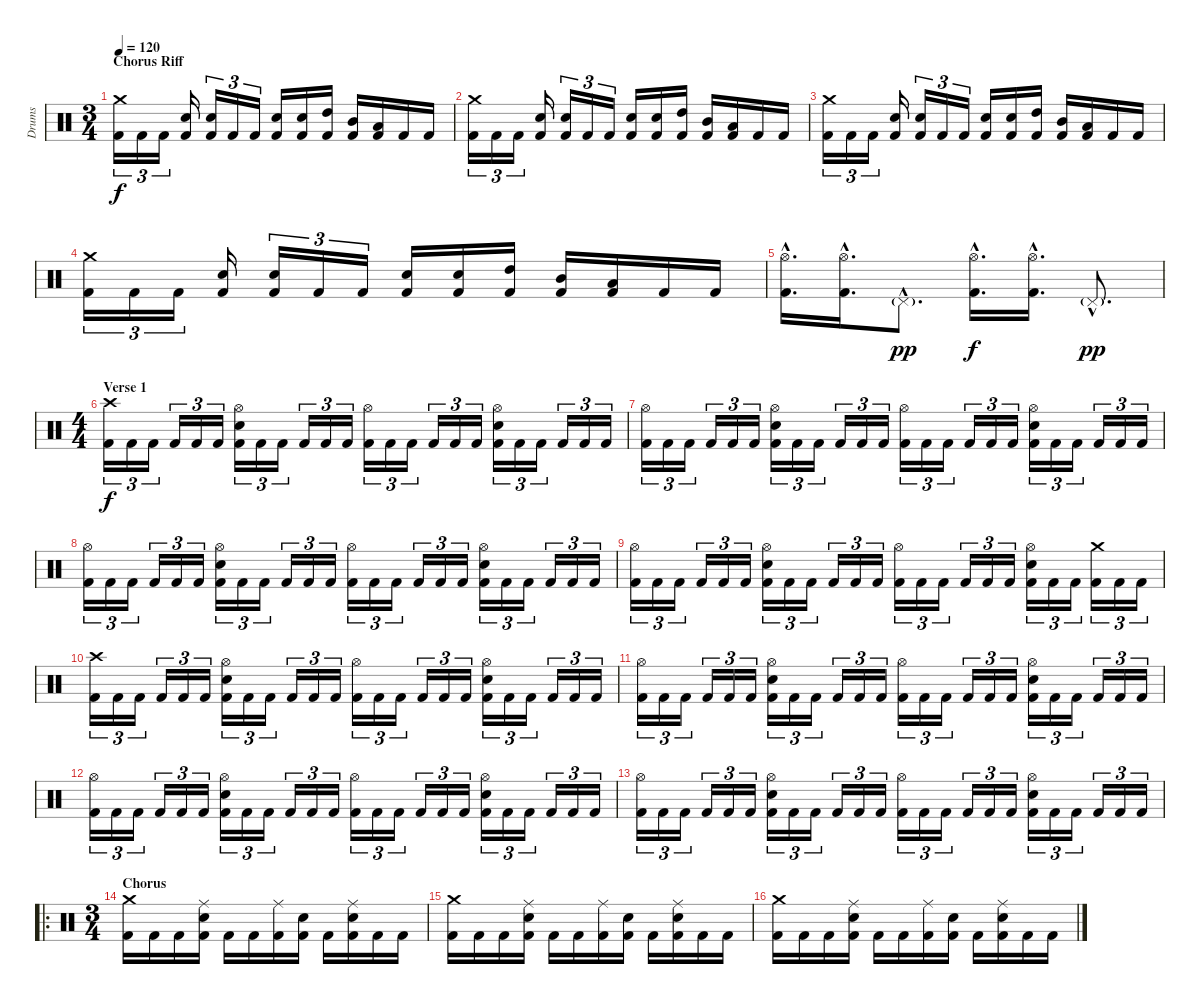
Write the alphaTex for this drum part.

\track ("Drums" "Drums") {instrument percussion}
\staff {score}
\articulation defaults
\ts (3 4)
\section ("" "Chorus Riff")
\tempo 120
\clef neutral
\ks c
("Crash medium (hit)" "Kick (hit) 2").16{tu (3 2) dy f} "Kick (hit) 2".16{tu (3 2)} "Kick (hit) 2".16{tu (3 2)} ("Electric Snare (hit)" "Kick (hit) 2").16 ("Electric Snare (hit)" "Kick (hit) 2").16{tu (3 2)} "Kick (hit) 2".16{tu (3 2)} "Kick (hit) 2".16{tu (3 2)} ("Electric Snare (hit)" "Kick (hit) 2").16 ("Electric Snare (hit)" "Kick (hit) 2").16 ("High Tom (hit)" "Kick (hit) 2").16 ("Mid Tom (hit)" "Kick (hit) 2").16 ("Low Tom (hit)" "Kick (hit) 2").16 "Kick (hit) 2".16 "Kick (hit) 2".16 |
("Crash medium (hit)" "Kick (hit) 2").16{tu (3 2)} "Kick (hit) 2".16{tu (3 2)} "Kick (hit) 2".16{tu (3 2)} ("Electric Snare (hit)" "Kick (hit) 2").16 ("Electric Snare (hit)" "Kick (hit) 2").16{tu (3 2)} "Kick (hit) 2".16{tu (3 2)} "Kick (hit) 2".16{tu (3 2)} ("Electric Snare (hit)" "Kick (hit) 2").16 ("Electric Snare (hit)" "Kick (hit) 2").16 ("High Tom (hit)" "Kick (hit) 2").16 ("Mid Tom (hit)" "Kick (hit) 2").16 ("Low Tom (hit)" "Kick (hit) 2").16 "Kick (hit) 2".16 "Kick (hit) 2".16 |
("Crash medium (hit)" "Kick (hit) 2").16{tu (3 2)} "Kick (hit) 2".16{tu (3 2)} "Kick (hit) 2".16{tu (3 2)} ("Electric Snare (hit)" "Kick (hit) 2").16 ("Electric Snare (hit)" "Kick (hit) 2").16{tu (3 2)} "Kick (hit) 2".16{tu (3 2)} "Kick (hit) 2".16{tu (3 2)} ("Electric Snare (hit)" "Kick (hit) 2").16 ("Electric Snare (hit)" "Kick (hit) 2").16 ("High Tom (hit)" "Kick (hit) 2").16 ("Mid Tom (hit)" "Kick (hit) 2").16 ("Low Tom (hit)" "Kick (hit) 2").16 "Kick (hit) 2".16 "Kick (hit) 2".16 |
("Crash medium (hit)" "Kick (hit) 2").16{tu (3 2)} "Kick (hit) 2".16{tu (3 2)} "Kick (hit) 2".16{tu (3 2)} ("Electric Snare (hit)" "Kick (hit) 2").16 ("Electric Snare (hit)" "Kick (hit) 2").16{tu (3 2)} "Kick (hit) 2".16{tu (3 2)} "Kick (hit) 2".16{tu (3 2)} ("Electric Snare (hit)" "Kick (hit) 2").16 ("Electric Snare (hit)" "Kick (hit) 2").16 ("High Tom (hit)" "Kick (hit) 2").16 ("Mid Tom (hit)" "Kick (hit) 2").16 ("Low Tom (hit)" "Kick (hit) 2").16 "Kick (hit) 2".16 "Kick (hit) 2".16 |
("Hi-Hat (open)"{hac} "Kick (hit) 2"{hac}).16{d} ("Hi-Hat (open)"{hac} "Kick (hit) 2"{hac}).16{d} "Pedal Hi-Hat (hit)"{g hac}.8{d dy pp} ("Hi-Hat (open)"{hac} "Kick (hit) 2"{hac}).16{d dy f} ("Hi-Hat (open)"{hac} "Kick (hit) 2"{hac}).16{d} "Pedal Hi-Hat (hit)"{g hac}.8{d dy pp} |
\ts (4 4)
\section ("" "Verse 1")
("Crash high (hit)" "Kick (hit) 2").16{tu (3 2) dy f} "Kick (hit) 2".16{tu (3 2)} "Kick (hit) 2".16{tu (3 2)} "Kick (hit) 2".16{tu (3 2)} "Kick (hit) 2".16{tu (3 2)} "Kick (hit) 2".16{tu (3 2)} ("Hi-Hat (open)" "Electric Snare (hit)" "Kick (hit) 2").16{tu (3 2)} "Kick (hit) 2".16{tu (3 2)} "Kick (hit) 2".16{tu (3 2)} "Kick (hit) 2".16{tu (3 2)} "Kick (hit) 2".16{tu (3 2)} "Kick (hit) 2".16{tu (3 2)} ("Hi-Hat (open)" "Kick (hit) 2").16{tu (3 2)} "Kick (hit) 2".16{tu (3 2)} "Kick (hit) 2".16{tu (3 2)} "Kick (hit) 2".16{tu (3 2)} "Kick (hit) 2".16{tu (3 2)} "Kick (hit) 2".16{tu (3 2)} ("Hi-Hat (open)" "Electric Snare (hit)" "Kick (hit) 2").16{tu (3 2)} "Kick (hit) 2".16{tu (3 2)} "Kick (hit) 2".16{tu (3 2)} "Kick (hit) 2".16{tu (3 2)} "Kick (hit) 2".16{tu (3 2)} "Kick (hit) 2".16{tu (3 2)} |
("Hi-Hat (open)" "Kick (hit) 2").16{tu (3 2)} "Kick (hit) 2".16{tu (3 2)} "Kick (hit) 2".16{tu (3 2)} "Kick (hit) 2".16{tu (3 2)} "Kick (hit) 2".16{tu (3 2)} "Kick (hit) 2".16{tu (3 2)} ("Hi-Hat (open)" "Electric Snare (hit)" "Kick (hit) 2").16{tu (3 2)} "Kick (hit) 2".16{tu (3 2)} "Kick (hit) 2".16{tu (3 2)} "Kick (hit) 2".16{tu (3 2)} "Kick (hit) 2".16{tu (3 2)} "Kick (hit) 2".16{tu (3 2)} ("Hi-Hat (open)" "Kick (hit) 2").16{tu (3 2)} "Kick (hit) 2".16{tu (3 2)} "Kick (hit) 2".16{tu (3 2)} "Kick (hit) 2".16{tu (3 2)} "Kick (hit) 2".16{tu (3 2)} "Kick (hit) 2".16{tu (3 2)} ("Hi-Hat (open)" "Electric Snare (hit)" "Kick (hit) 2").16{tu (3 2)} "Kick (hit) 2".16{tu (3 2)} "Kick (hit) 2".16{tu (3 2)} "Kick (hit) 2".16{tu (3 2)} "Kick (hit) 2".16{tu (3 2)} "Kick (hit) 2".16{tu (3 2)} |
("Hi-Hat (open)" "Kick (hit) 2").16{tu (3 2)} "Kick (hit) 2".16{tu (3 2)} "Kick (hit) 2".16{tu (3 2)} "Kick (hit) 2".16{tu (3 2)} "Kick (hit) 2".16{tu (3 2)} "Kick (hit) 2".16{tu (3 2)} ("Hi-Hat (open)" "Electric Snare (hit)" "Kick (hit) 2").16{tu (3 2)} "Kick (hit) 2".16{tu (3 2)} "Kick (hit) 2".16{tu (3 2)} "Kick (hit) 2".16{tu (3 2)} "Kick (hit) 2".16{tu (3 2)} "Kick (hit) 2".16{tu (3 2)} ("Hi-Hat (open)" "Kick (hit) 2").16{tu (3 2)} "Kick (hit) 2".16{tu (3 2)} "Kick (hit) 2".16{tu (3 2)} "Kick (hit) 2".16{tu (3 2)} "Kick (hit) 2".16{tu (3 2)} "Kick (hit) 2".16{tu (3 2)} ("Hi-Hat (open)" "Electric Snare (hit)" "Kick (hit) 2").16{tu (3 2)} "Kick (hit) 2".16{tu (3 2)} "Kick (hit) 2".16{tu (3 2)} "Kick (hit) 2".16{tu (3 2)} "Kick (hit) 2".16{tu (3 2)} "Kick (hit) 2".16{tu (3 2)} |
("Hi-Hat (open)" "Kick (hit) 2").16{tu (3 2)} "Kick (hit) 2".16{tu (3 2)} "Kick (hit) 2".16{tu (3 2)} "Kick (hit) 2".16{tu (3 2)} "Kick (hit) 2".16{tu (3 2)} "Kick (hit) 2".16{tu (3 2)} ("Hi-Hat (open)" "Electric Snare (hit)" "Kick (hit) 2").16{tu (3 2)} "Kick (hit) 2".16{tu (3 2)} "Kick (hit) 2".16{tu (3 2)} "Kick (hit) 2".16{tu (3 2)} "Kick (hit) 2".16{tu (3 2)} "Kick (hit) 2".16{tu (3 2)} ("Hi-Hat (open)" "Kick (hit) 2").16{tu (3 2)} "Kick (hit) 2".16{tu (3 2)} "Kick (hit) 2".16{tu (3 2)} "Kick (hit) 2".16{tu (3 2)} "Kick (hit) 2".16{tu (3 2)} "Kick (hit) 2".16{tu (3 2)} ("Hi-Hat (open)" "Electric Snare (hit)" "Kick (hit) 2").16{tu (3 2)} "Kick (hit) 2".16{tu (3 2)} "Kick (hit) 2".16{tu (3 2)} ("Crash medium (hit)" "Kick (hit) 2").16{tu (3 2)} "Kick (hit) 2".16{tu (3 2)} "Kick (hit) 2".16{tu (3 2)} |
("Crash high (hit)" "Kick (hit) 2").16{tu (3 2)} "Kick (hit) 2".16{tu (3 2)} "Kick (hit) 2".16{tu (3 2)} "Kick (hit) 2".16{tu (3 2)} "Kick (hit) 2".16{tu (3 2)} "Kick (hit) 2".16{tu (3 2)} ("Hi-Hat (open)" "Electric Snare (hit)" "Kick (hit) 2").16{tu (3 2)} "Kick (hit) 2".16{tu (3 2)} "Kick (hit) 2".16{tu (3 2)} "Kick (hit) 2".16{tu (3 2)} "Kick (hit) 2".16{tu (3 2)} "Kick (hit) 2".16{tu (3 2)} ("Hi-Hat (open)" "Kick (hit) 2").16{tu (3 2)} "Kick (hit) 2".16{tu (3 2)} "Kick (hit) 2".16{tu (3 2)} "Kick (hit) 2".16{tu (3 2)} "Kick (hit) 2".16{tu (3 2)} "Kick (hit) 2".16{tu (3 2)} ("Hi-Hat (open)" "Electric Snare (hit)" "Kick (hit) 2").16{tu (3 2)} "Kick (hit) 2".16{tu (3 2)} "Kick (hit) 2".16{tu (3 2)} "Kick (hit) 2".16{tu (3 2)} "Kick (hit) 2".16{tu (3 2)} "Kick (hit) 2".16{tu (3 2)} |
("Hi-Hat (open)" "Kick (hit) 2").16{tu (3 2)} "Kick (hit) 2".16{tu (3 2)} "Kick (hit) 2".16{tu (3 2)} "Kick (hit) 2".16{tu (3 2)} "Kick (hit) 2".16{tu (3 2)} "Kick (hit) 2".16{tu (3 2)} ("Hi-Hat (open)" "Electric Snare (hit)" "Kick (hit) 2").16{tu (3 2)} "Kick (hit) 2".16{tu (3 2)} "Kick (hit) 2".16{tu (3 2)} "Kick (hit) 2".16{tu (3 2)} "Kick (hit) 2".16{tu (3 2)} "Kick (hit) 2".16{tu (3 2)} ("Hi-Hat (open)" "Kick (hit) 2").16{tu (3 2)} "Kick (hit) 2".16{tu (3 2)} "Kick (hit) 2".16{tu (3 2)} "Kick (hit) 2".16{tu (3 2)} "Kick (hit) 2".16{tu (3 2)} "Kick (hit) 2".16{tu (3 2)} ("Hi-Hat (open)" "Electric Snare (hit)" "Kick (hit) 2").16{tu (3 2)} "Kick (hit) 2".16{tu (3 2)} "Kick (hit) 2".16{tu (3 2)} "Kick (hit) 2".16{tu (3 2)} "Kick (hit) 2".16{tu (3 2)} "Kick (hit) 2".16{tu (3 2)} |
("Hi-Hat (open)" "Kick (hit) 2").16{tu (3 2)} "Kick (hit) 2".16{tu (3 2)} "Kick (hit) 2".16{tu (3 2)} "Kick (hit) 2".16{tu (3 2)} "Kick (hit) 2".16{tu (3 2)} "Kick (hit) 2".16{tu (3 2)} ("Hi-Hat (open)" "Electric Snare (hit)" "Kick (hit) 2").16{tu (3 2)} "Kick (hit) 2".16{tu (3 2)} "Kick (hit) 2".16{tu (3 2)} "Kick (hit) 2".16{tu (3 2)} "Kick (hit) 2".16{tu (3 2)} "Kick (hit) 2".16{tu (3 2)} ("Hi-Hat (open)" "Kick (hit) 2").16{tu (3 2)} "Kick (hit) 2".16{tu (3 2)} "Kick (hit) 2".16{tu (3 2)} "Kick (hit) 2".16{tu (3 2)} "Kick (hit) 2".16{tu (3 2)} "Kick (hit) 2".16{tu (3 2)} ("Hi-Hat (open)" "Electric Snare (hit)" "Kick (hit) 2").16{tu (3 2)} "Kick (hit) 2".16{tu (3 2)} "Kick (hit) 2".16{tu (3 2)} "Kick (hit) 2".16{tu (3 2)} "Kick (hit) 2".16{tu (3 2)} "Kick (hit) 2".16{tu (3 2)} |
("Hi-Hat (open)" "Kick (hit) 2").16{tu (3 2)} "Kick (hit) 2".16{tu (3 2)} "Kick (hit) 2".16{tu (3 2)} "Kick (hit) 2".16{tu (3 2)} "Kick (hit) 2".16{tu (3 2)} "Kick (hit) 2".16{tu (3 2)} ("Hi-Hat (open)" "Electric Snare (hit)" "Kick (hit) 2").16{tu (3 2)} "Kick (hit) 2".16{tu (3 2)} "Kick (hit) 2".16{tu (3 2)} "Kick (hit) 2".16{tu (3 2)} "Kick (hit) 2".16{tu (3 2)} "Kick (hit) 2".16{tu (3 2)} ("Hi-Hat (open)" "Kick (hit) 2").16{tu (3 2)} "Kick (hit) 2".16{tu (3 2)} "Kick (hit) 2".16{tu (3 2)} "Kick (hit) 2".16{tu (3 2)} "Kick (hit) 2".16{tu (3 2)} "Kick (hit) 2".16{tu (3 2)} ("Hi-Hat (open)" "Electric Snare (hit)" "Kick (hit) 2").16{tu (3 2)} "Kick (hit) 2".16{tu (3 2)} "Kick (hit) 2".16{tu (3 2)} "Kick (hit) 2".16{tu (3 2)} "Kick (hit) 2".16{tu (3 2)} "Kick (hit) 2".16{tu (3 2)} |
\ro
\ts (3 4)
\section ("" "Chorus")
("Crash medium (hit)" "Kick (hit) 2").16 "Kick (hit) 2".16 "Kick (hit) 2".16 ("Ride (middle)" "Electric Snare (hit)" "Kick (hit) 2").16 "Kick (hit) 2".16 "Kick (hit) 2".16 ("Ride (middle)" "Kick (hit) 2").16 ("Electric Snare (hit)" "Kick (hit) 2").16 "Kick (hit) 2".16 ("Ride (middle)" "Electric Snare (hit)" "Kick (hit) 2").16 "Kick (hit) 2".16 "Kick (hit) 2".16 |
("Crash medium (hit)" "Kick (hit) 2").16 "Kick (hit) 2".16 "Kick (hit) 2".16 ("Ride (middle)" "Electric Snare (hit)" "Kick (hit) 2").16 "Kick (hit) 2".16 "Kick (hit) 2".16 ("Ride (middle)" "Kick (hit) 2").16 ("Electric Snare (hit)" "Kick (hit) 2").16 "Kick (hit) 2".16 ("Ride (middle)" "Electric Snare (hit)" "Kick (hit) 2").16 "Kick (hit) 2".16 "Kick (hit) 2".16 |
("Crash medium (hit)" "Kick (hit) 2").16 "Kick (hit) 2".16 "Kick (hit) 2".16 ("Ride (middle)" "Electric Snare (hit)" "Kick (hit) 2").16 "Kick (hit) 2".16 "Kick (hit) 2".16 ("Ride (middle)" "Kick (hit) 2").16 ("Electric Snare (hit)" "Kick (hit) 2").16 "Kick (hit) 2".16 ("Ride (middle)" "Electric Snare (hit)" "Kick (hit) 2").16 "Kick (hit) 2".16 "Kick (hit) 2".16
